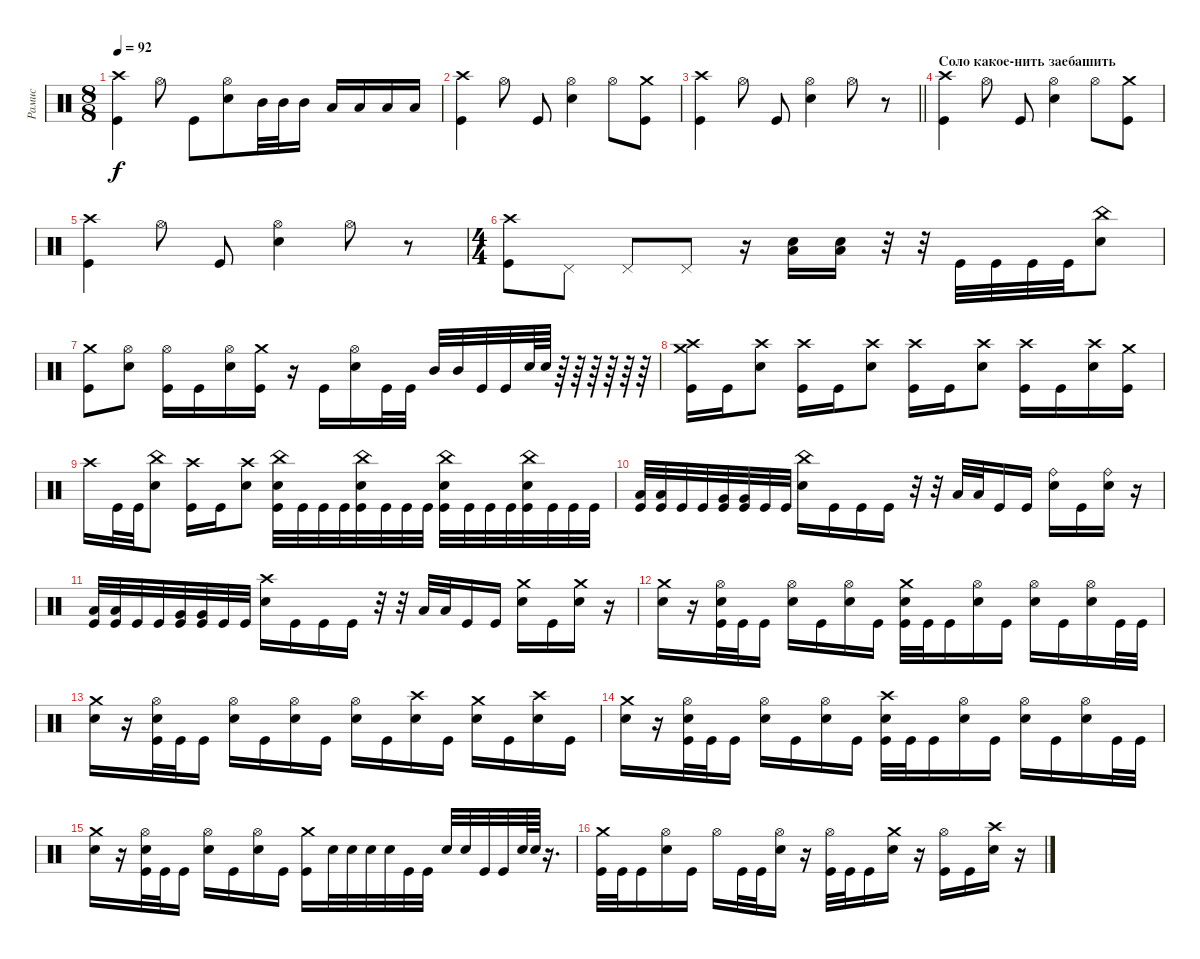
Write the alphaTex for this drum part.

\track ("Рамис" "Рамис") {instrument percussion}
\staff {score}
\articulation defaults
\ts (8 8)
\tempo 92
\clef neutral
\ks c
("Crash high (hit)" "Kick (hit)").4{dy f} "Hi-Hat (open)".8 "Kick (hit)".8 ("Hi-Hat (open)" "Electric Snare (hit)").8 "Mid Tom (hit)".32 "Mid Tom (hit)".32 "Mid Tom (hit)".16 "Low Tom (hit)".16 "Low Tom (hit)".16 "Low Tom (hit)".16 "Low Tom (hit)".16 |
("Crash high (hit)" "Kick (hit)").4 "Hi-Hat (open)".8 "Kick (hit)".8 ("Hi-Hat (open)" "Electric Snare (hit)").4 "Hi-Hat (open)".8 ("Crash medium (hit)" "Kick (hit)").8 |
\barLineRight lightlight
("Crash high (hit)" "Kick (hit)").4 "Hi-Hat (open)".8 "Kick (hit)".8 ("Hi-Hat (open)" "Electric Snare (hit)").4 "Hi-Hat (open)".8 r.8 |
\section ("" "Соло какое-нить заебашить")
("Crash high (hit)" "Kick (hit)").4 "Hi-Hat (open)".8 "Kick (hit)".8 ("Hi-Hat (open)" "Electric Snare (hit)").4 "Hi-Hat (open)".8 ("Crash medium (hit)" "Kick (hit)").8 |
("Crash high (hit)" "Kick (hit)").4 "Hi-Hat (open)".8 "Kick (hit)".8 ("Hi-Hat (open)" "Electric Snare (hit)").4 "Hi-Hat (open)".8 r.8 |
\ts (4 4)
("Crash high (hit)" "Kick (hit)").8 "Pedal Hi-Hat (hit)".8 "Pedal Hi-Hat (hit)".8 "Pedal Hi-Hat (hit)".8 r.16 ("Electric Snare (hit)" "Low Floor Tom (hit)").16 ("Electric Snare (hit)" "Low Floor Tom (hit)").16 r.32 r.32 "Kick (hit)".32 "Kick (hit)".32 "Kick (hit)".32 "Kick (hit)".32 ("China (hit)" "Electric Snare (hit)").8 |
("Crash medium (hit)" "Kick (hit)").8 ("Hi-Hat (open)" "Electric Snare (hit)").8 ("Hi-Hat (open)" "Kick (hit)").16 "Kick (hit)".16 ("Hi-Hat (open)" "Electric Snare (hit)").16 ("Crash medium (hit)" "Kick (hit)").16 r.16 "Kick (hit)".16 ("Hi-Hat (open)" "Electric Snare (hit)").16 "Kick (hit)".32 "Kick (hit)".32 "Mid Tom (hit)".32 "Mid Tom (hit)".32 "Kick (hit)".32 "Kick (hit)".32 "Electric Snare (hit)".64 "Electric Snare (hit)".64 r.64 r.64 r.64 r.64 r.64 r.64 |
("Crash high (hit)" "Crash medium (hit)" "Kick (hit)").16 "Kick (hit)".16 ("Crash high (hit)" "Electric Snare (hit)").8 ("Crash high (hit)" "Kick (hit)").16 "Kick (hit)".16 ("Crash high (hit)" "Electric Snare (hit)").8 ("Crash high (hit)" "Kick (hit)").16 "Kick (hit)".16 ("Crash high (hit)" "Electric Snare (hit)").8 ("Crash high (hit)" "Kick (hit)").16 "Kick (hit)".16 ("Crash high (hit)" "Electric Snare (hit)").16 ("Crash medium (hit)" "Kick (hit)").16 |
"Crash high (hit)".16 "Kick (hit)".32 "Kick (hit)".32 ("China (hit)" "Electric Snare (hit)").8 ("Crash high (hit)" "Kick (hit)").16 "Kick (hit)".16 ("Crash high (hit)" "Electric Snare (hit)").8 ("China (hit)" "Electric Snare (hit)" "Kick (hit)").32 "Kick (hit)".32 "Kick (hit)".32 "Kick (hit)".32 ("China (hit)" "Electric Snare (hit)" "Kick (hit)").32 "Kick (hit)".32 "Kick (hit)".32 "Kick (hit)".32 ("China (hit)" "Electric Snare (hit)" "Kick (hit)").32 "Kick (hit)".32 "Kick (hit)".32 "Kick (hit)".32 ("China (hit)" "Electric Snare (hit)" "Kick (hit)").32 "Kick (hit)".32 "Kick (hit)".32 "Kick (hit)".32 |
("Low Tom (hit)" "Kick (hit)").32 ("Low Tom (hit)" "Kick (hit)").32 "Kick (hit)".32 "Kick (hit)".32 ("Very Low Tom (hit)" "Kick (hit)").32 ("Very Low Tom (hit)" "Kick (hit)").32 "Kick (hit)".32 "Kick (hit)".32 ("Electric Snare (hit)" "China (hit)").16 "Kick (hit)".16 "Kick (hit)".16 "Kick (hit)".16 r.32 r.32 "Low Tom (hit)".32 "Low Tom (hit)".32 "Kick (hit)".16 "Kick (hit)".16 ("Electric Snare (hit)" "Ride (bell)").16 "Kick (hit)".16 ("Electric Snare (hit)" "Ride (bell)").16 r.16 |
("Low Tom (hit)" "Kick (hit)").32 ("Low Tom (hit)" "Kick (hit)").32 "Kick (hit)".32 "Kick (hit)".32 ("Very Low Tom (hit)" "Kick (hit)").32 ("Very Low Tom (hit)" "Kick (hit)").32 "Kick (hit)".32 "Kick (hit)".32 ("Electric Snare (hit)" "Crash high (hit)").16 "Kick (hit)".16 "Kick (hit)".16 "Kick (hit)".16 r.32 r.32 "Low Tom (hit)".32 "Low Tom (hit)".32 "Kick (hit)".16 "Kick (hit)".16 ("Electric Snare (hit)" "Crash medium (hit)").16 "Kick (hit)".16 ("Electric Snare (hit)" "Crash medium (hit)").16 r.16 |
("Crash medium (hit)" "Electric Snare (hit)").16 r.16 ("Hi-Hat (open)" "Electric Snare (hit)" "Kick (hit)").32 "Kick (hit)".32 "Kick (hit)".16 ("Hi-Hat (open)" "Electric Snare (hit)").16 "Kick (hit)".16 ("Hi-Hat (open)" "Electric Snare (hit)").16 "Kick (hit)".16 ("Crash medium (hit)" "Electric Snare (hit)" "Kick (hit)").32 "Kick (hit)".32 "Kick (hit)".16 ("Hi-Hat (open)" "Electric Snare (hit)").16 "Kick (hit)".16 ("Hi-Hat (open)" "Electric Snare (hit)").16 "Kick (hit)".16 ("Hi-Hat (open)" "Electric Snare (hit)").16 "Kick (hit)".32 "Kick (hit)".32 |
("Crash medium (hit)" "Electric Snare (hit)").16 r.16 ("Hi-Hat (open)" "Electric Snare (hit)" "Kick (hit)").32 "Kick (hit)".32 "Kick (hit)".16 ("Hi-Hat (open)" "Electric Snare (hit)").16 "Kick (hit)".16 ("Hi-Hat (open)" "Electric Snare (hit)").16 "Kick (hit)".16 ("Hi-Hat (open)" "Electric Snare (hit)").16 "Kick (hit)".16 ("Crash high (hit)" "Electric Snare (hit)").16 "Kick (hit)".16 ("Crash medium (hit)" "Electric Snare (hit)").16 "Kick (hit)".16 ("Crash high (hit)" "Electric Snare (hit)").16 "Kick (hit)".16 |
("Crash medium (hit)" "Electric Snare (hit)").16 r.16 ("Hi-Hat (open)" "Electric Snare (hit)" "Kick (hit)").32 "Kick (hit)".32 "Kick (hit)".16 ("Hi-Hat (open)" "Electric Snare (hit)").16 "Kick (hit)".16 ("Hi-Hat (open)" "Electric Snare (hit)").16 "Kick (hit)".16 ("Crash high (hit)" "Electric Snare (hit)" "Kick (hit)").32 "Kick (hit)".32 "Kick (hit)".16 ("Hi-Hat (open)" "Electric Snare (hit)").16 "Kick (hit)".16 ("Hi-Hat (open)" "Electric Snare (hit)").16 "Kick (hit)".16 ("Hi-Hat (open)" "Electric Snare (hit)").16 "Kick (hit)".32 "Kick (hit)".32 |
("Crash medium (hit)" "Electric Snare (hit)").16 r.16 ("Hi-Hat (open)" "Electric Snare (hit)" "Kick (hit)").32 "Kick (hit)".32 "Kick (hit)".16 ("Hi-Hat (open)" "Electric Snare (hit)").16 "Kick (hit)".16 ("Hi-Hat (open)" "Electric Snare (hit)").16 "Kick (hit)".16 ("Crash medium (hit)" "Kick (hit)").16 "Electric Snare (hit)".32 "Electric Snare (hit)".32 "Electric Snare (hit)".32 "Electric Snare (hit)".32 "Kick (hit)".32 "Kick (hit)".32 "Electric Snare (hit)".32 "Electric Snare (hit)".32 "Kick (hit)".32 "Kick (hit)".32 "Electric Snare (hit)".64 "Electric Snare (hit)".64 r.16{d} |
("Crash medium (hit)" "Kick (hit)").32 "Kick (hit)".32 "Kick (hit)".16 ("Hi-Hat (open)" "Electric Snare (hit)").16 "Kick (hit)".16 "Hi-Hat (open)".16 "Kick (hit)".32 "Kick (hit)".32 ("Hi-Hat (open)" "Electric Snare (hit)").16 r.16 ("Hi-Hat (open)" "Kick (hit)").32 "Kick (hit)".32 "Kick (hit)".16 ("Crash medium (hit)" "Electric Snare (hit)").16 r.16 ("Hi-Hat (open)" "Kick (hit)").16 "Kick (hit)".16 ("Crash high (hit)" "Electric Snare (hit)").16 r.16
